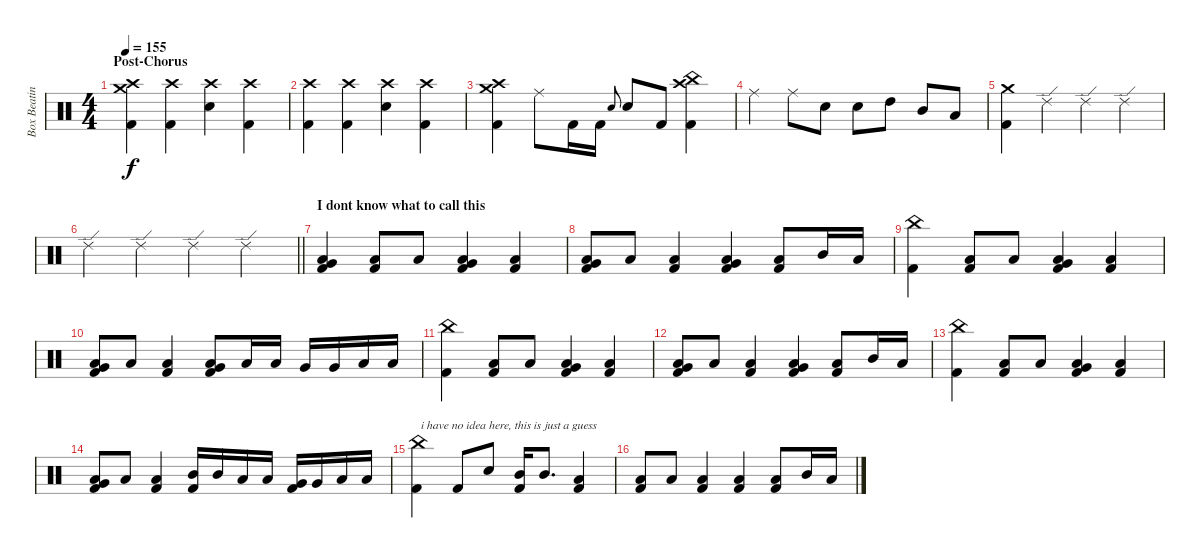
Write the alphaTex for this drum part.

\track ("Box Beating" "Box Beatin") {instrument percussion}
\staff {score}
\articulation defaults
\ts (4 4)
\section ("" "Post-Chorus")
\tempo 155
\clef neutral
\ks c
("Crash high (hit)" "Crash medium (hit)" "Kick (hit) 2").4{dy f} ("Crash high (hit)" "Kick (hit) 2").4 ("Crash high (hit)" "Electric Snare (hit)").4 ("Crash high (hit)" "Kick (hit) 2").4 |
("Crash high (hit)" "Kick (hit) 2").4 ("Crash high (hit)" "Kick (hit) 2").4 ("Crash high (hit)" "Electric Snare (hit)").4 ("Crash high (hit)" "Kick (hit) 2").4 |
("Crash high (hit)" "Crash medium (hit)" "Kick (hit) 2").4 "Ride (middle)".8 "Kick (hit) 2".16 "Kick (hit) 2".16 "Electric Snare (hit)".8{gr onbeat} "Electric Snare (hit)".8 "Kick (hit) 2".8 ("Crash high (hit)" "China (hit)" "Kick (hit) 2").4 |
"Ride (middle)".4 "Ride (middle)".8 "Electric Snare (hit)".8 "Electric Snare (hit)".8 "High Tom (hit)".8 "Mid Tom (hit)".8 "Low Tom (hit)".8 |
("Crash medium (hit)" "Kick (hit) 2").4 "Ride (edge) 2".4 "Ride (edge) 2".4 "Ride (edge) 2".4 |
\barLineRight lightlight "Ride (edge) 2".4 "Ride (edge) 2".4 "Ride (edge) 2".4 "Ride (edge) 2".4
|
\section ("" "I dont know what to call this")
("Low Floor Tom (hit)" "Very Low Tom (hit)" "Kick (hit) 2").4 ("Low Floor Tom (hit)" "Kick (hit) 2").8 "Low Tom (hit)".8 ("Low Floor Tom (hit)" "Very Low Tom (hit)" "Kick (hit) 2").4 ("Low Floor Tom (hit)" "Kick (hit) 2").4 |
("Low Floor Tom (hit)" "Very Low Tom (hit)" "Kick (hit) 2").8 "Low Tom (hit)".8 ("Low Floor Tom (hit)" "Kick (hit) 2").4 ("Low Floor Tom (hit)" "Very Low Tom (hit)" "Kick (hit) 2").4 ("Low Floor Tom (hit)" "Kick (hit) 2").8 "Mid Tom (hit)".16 "Low Tom (hit)".16 |
("China (hit)" "Kick (hit) 2").4 ("Low Floor Tom (hit)" "Kick (hit) 2").8 "Low Tom (hit)".8 ("Low Floor Tom (hit)" "Very Low Tom (hit)" "Kick (hit) 2").4 ("Low Floor Tom (hit)" "Kick (hit) 2").4 |
("Low Floor Tom (hit)" "Very Low Tom (hit)" "Kick (hit) 2").8 "Low Tom (hit)".8 ("Low Floor Tom (hit)" "Kick (hit) 2").4 ("Low Floor Tom (hit)" "Very Low Tom (hit)" "Kick (hit) 2").8 "Low Tom (hit)".16 "Low Tom (hit)".16 "Very Low Tom (hit)".16 "Very Low Tom (hit)".16 "Low Floor Tom (hit)".16 "Low Floor Tom (hit)".16 |
("China (hit)" "Kick (hit) 2").4 ("Low Floor Tom (hit)" "Kick (hit) 2").8 "Low Tom (hit)".8 ("Low Floor Tom (hit)" "Very Low Tom (hit)" "Kick (hit) 2").4 ("Low Floor Tom (hit)" "Kick (hit) 2").4 |
("Low Floor Tom (hit)" "Very Low Tom (hit)" "Kick (hit) 2").8 "Low Tom (hit)".8 ("Low Floor Tom (hit)" "Kick (hit) 2").4 ("Low Floor Tom (hit)" "Very Low Tom (hit)" "Kick (hit) 2").4 ("Low Floor Tom (hit)" "Kick (hit) 2").8 "Mid Tom (hit)".16 "Low Tom (hit)".16 |
("China (hit)" "Kick (hit) 2").4 ("Low Floor Tom (hit)" "Kick (hit) 2").8 "Low Tom (hit)".8 ("Low Floor Tom (hit)" "Very Low Tom (hit)" "Kick (hit) 2").4 ("Low Floor Tom (hit)" "Kick (hit) 2").4 |
("Low Floor Tom (hit)" "Very Low Tom (hit)" "Kick (hit) 2").8 "Low Tom (hit)".8 ("Low Floor Tom (hit)" "Kick (hit) 2").4 ("Mid Tom (hit)" "Kick (hit) 2").16 "Mid Tom (hit)".16 "Low Tom (hit)".16 "Low Tom (hit)".16 ("Very Low Tom (hit)" "Kick (hit) 2").16 "Very Low Tom (hit)".16 "Low Floor Tom (hit)".16 "Low Floor Tom (hit)".16 |
("China (hit)" "Kick (hit) 2").4{txt "i have no idea here, this is just a guess"} "Kick (hit) 2".8 "Electric Snare (hit)".8 ("Mid Tom (hit)" "Kick (hit) 2").16 "Mid Tom (hit)".8{d} ("Low Tom (hit)" "Kick (hit) 2").4 |
("Low Floor Tom (hit)" "Kick (hit) 2").8 "Low Tom (hit)".8 ("Low Floor Tom (hit)" "Kick (hit) 2").4 ("Low Floor Tom (hit)" "Kick (hit) 2").4 ("Low Floor Tom (hit)" "Kick (hit) 2").8 "Mid Tom (hit)".16 "Low Tom (hit)".16
